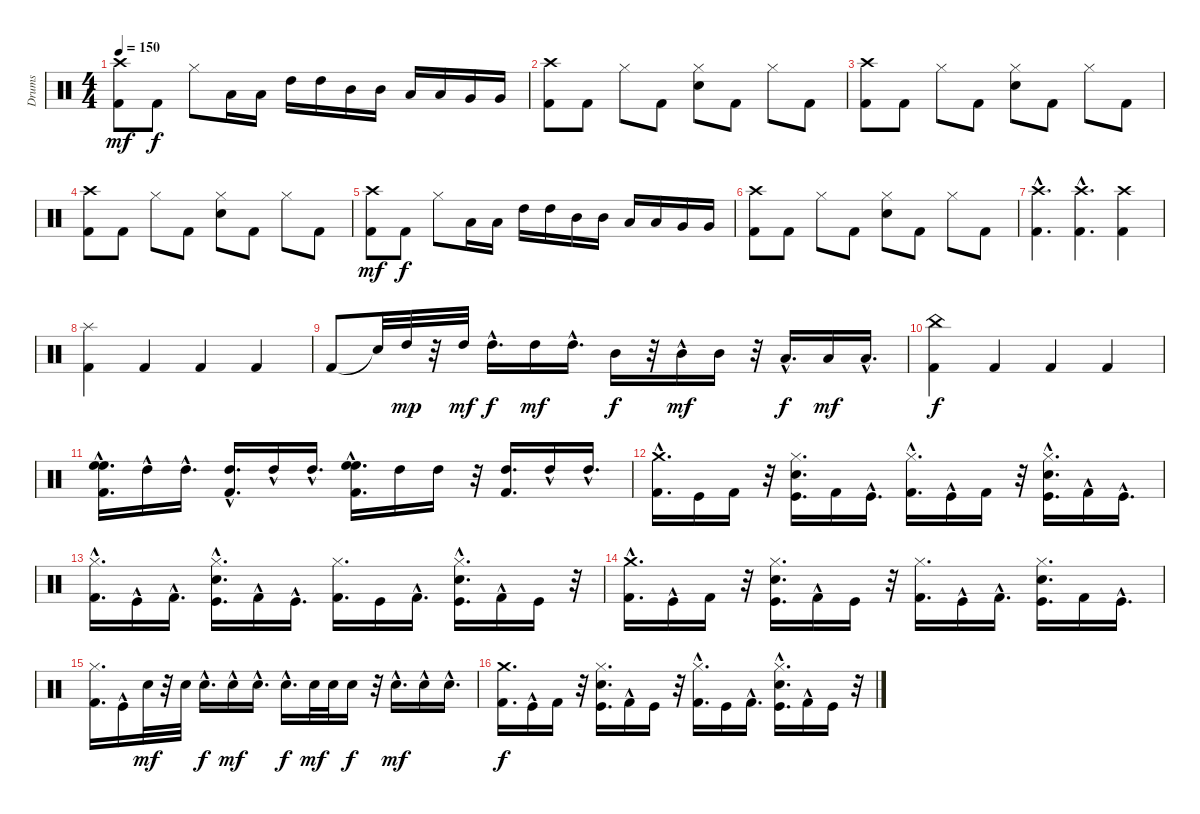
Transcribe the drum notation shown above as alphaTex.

\track ("Drums" "Drums") {instrument percussion}
\staff {score}
\articulation defaults
\ts (4 4)
\tempo 150
\clef neutral
\ks c
("Kick (hit) 2" "Crash high (hit)").8{dy mf} "Kick (hit) 2".8{dy f} "Hi-Hat (closed)".8 "Low Tom (hit)".16 "Low Tom (hit)".16 "High Tom (hit)".16 "High Tom (hit)".16 "Mid Tom (hit)".16 "Mid Tom (hit)".16 "Low Tom (hit)".16 "Low Tom (hit)".16 "Very Low Tom (hit)".16 "Very Low Tom (hit)".16 |
("Kick (hit) 2" "Crash high (hit)").8 "Kick (hit) 2".8 "Hi-Hat (closed)".8 "Kick (hit) 2".8 ("Snare (hit) 2" "Hi-Hat (closed)").8 "Kick (hit) 2".8 "Hi-Hat (closed)".8 "Kick (hit) 2".8 |
("Kick (hit) 2" "Crash high (hit)").8 "Kick (hit) 2".8 "Hi-Hat (closed)".8 "Kick (hit) 2".8 ("Snare (hit) 2" "Hi-Hat (closed)").8 "Kick (hit) 2".8 "Hi-Hat (closed)".8 "Kick (hit) 2".8 |
("Crash high (hit)" "Kick (hit) 2").8 "Kick (hit) 2".8 "Hi-Hat (closed)".8 "Kick (hit) 2".8 ("Hi-Hat (closed)" "Snare (hit) 2").8 "Kick (hit) 2".8 "Hi-Hat (closed)".8 "Kick (hit) 2".8 |
("Kick (hit) 2" "Crash high (hit)").8{dy mf} "Kick (hit) 2".8{dy f} "Hi-Hat (closed)".8 "Low Tom (hit)".16 "Low Tom (hit)".16 "High Tom (hit)".16 "High Tom (hit)".16 "Mid Tom (hit)".16 "Mid Tom (hit)".16 "Low Tom (hit)".16 "Low Tom (hit)".16 "Very Low Tom (hit)".16 "Very Low Tom (hit)".16 |
("Kick (hit) 2" "Crash high (hit)").8 "Kick (hit) 2".8 "Hi-Hat (closed)".8 "Kick (hit) 2".8 ("Snare (hit) 2" "Hi-Hat (closed)").8 "Kick (hit) 2".8 "Hi-Hat (closed)".8 "Kick (hit) 2".8 |
("Crash high (hit)"{hac} "Kick (hit) 2"{hac}).4{d} ("Crash high (hit)"{hac} "Kick (hit) 2"{hac}).4{d} ("Kick (hit) 2" "Crash high (hit)").4 |
("Splash (hit)" "Kick (hit) 2").4 "Kick (hit) 2".4 "Kick (hit) 2".4 "Kick (hit) 2".4 |
"Kick (hit) 2".8 "Snare (hit)"{t}.32 "High Tom (hit)".32{dy mp} r.32 "High Tom (hit)".32{dy mf} "High Tom (hit)"{hac}.16{d dy f} "High Tom (hit)".16{dy mf} "High Tom (hit)"{hac}.16{d} "Mid Tom (hit)".16{dy f} r.32 "Mid Tom (hit)"{hac}.16{dy mf} "Mid Tom (hit)".16 r.32 "Low Tom (hit)"{hac}.16{d dy f} "Low Tom (hit)".16{dy mf} "Low Tom (hit)"{hac}.16{d} |
("Kick (hit) 2" "China (hit)").4{dy f} "Kick (hit) 2".4 "Kick (hit) 2".4 "Kick (hit) 2".4 |
("High Floor Tom (hit)"{hac} "Kick (hit) 2" "High Floor Tom (hit)").16{d} "High Tom (hit)"{hac}.16 "High Tom (hit)"{hac}.16{d} ("High Tom (hit)"{hac} "Kick (hit) 2").16{d} "High Tom (hit)"{hac}.16 "High Tom (hit)"{hac}.16{d} ("High Floor Tom (hit)"{hac} "Kick (hit) 2" "High Floor Tom (hit)").16{d} "High Tom (hit)".16 "High Tom (hit)".16 r.32 ("Kick (hit) 2" "High Tom (hit)").16{d} "High Tom (hit)"{hac}.16 "High Tom (hit)"{hac}.16{d} |
("Kick (hit) 2"{hac} "Crash medium (hit)").16{d} "Kick (hit)".16 "Kick (hit) 2".16 r.32 ("Hi-Hat (closed)" "Kick (hit)" "Snare (hit) 2").16{d} "Kick (hit) 2".16 "Kick (hit)"{hac}.16{d} ("Hi-Hat (closed)" "Kick (hit) 2"{hac}).16{d} "Kick (hit)"{hac}.16 "Kick (hit) 2".16 r.32 ("Hi-Hat (closed)" "Kick (hit)"{hac} "Snare (hit) 2").16{d} "Kick (hit) 2"{hac}.16 "Kick (hit)"{hac}.16{d} |
("Kick (hit) 2"{hac} "Hi-Hat (closed)").16{d} "Kick (hit)"{hac}.16 "Kick (hit) 2"{hac}.16{d} ("Hi-Hat (closed)" "Kick (hit)"{hac} "Snare (hit) 2").16{d} "Kick (hit) 2"{hac}.16 "Kick (hit)"{hac}.16{d} ("Hi-Hat (closed)" "Kick (hit) 2").16{d} "Kick (hit)".16 "Kick (hit) 2"{hac}.16{d} ("Hi-Hat (closed)" "Kick (hit)"{hac} "Snare (hit) 2").16{d} "Kick (hit) 2"{hac}.16 "Kick (hit)".16 r.32 |
("Kick (hit) 2"{hac} "Crash medium (hit)").16{d} "Kick (hit)"{hac}.16 "Kick (hit) 2".16 r.32 ("Hi-Hat (closed)" "Snare (hit) 2" "Kick (hit)").16{d} "Kick (hit) 2"{hac}.16 "Kick (hit)".16 r.32 ("Hi-Hat (closed)" "Kick (hit) 2").16{d} "Kick (hit)"{hac}.16 "Kick (hit) 2"{hac}.16{d} ("Snare (hit) 2" "Hi-Hat (closed)" "Kick (hit)").16{d} "Kick (hit) 2".16 "Kick (hit)"{hac}.16{d} |
("Hi-Hat (closed)" "Kick (hit) 2").16{d} "Kick (hit)"{hac}.16 "Snare (hit) 2".32{dy mf} r.32 "Snare (hit) 2".32 "Snare (hit) 2"{hac}.16{d dy f} "Snare (hit) 2"{hac}.16{dy mf} "Snare (hit) 2"{hac}.16{d} "Snare (hit) 2"{hac}.16{d dy f} "Snare (hit) 2".32{dy mf} "Snare (hit) 2".32 "Snare (hit) 2".16{dy f} r.32 "Snare (hit) 2"{hac}.16{d dy mf} "Snare (hit) 2"{hac}.16 "Snare (hit) 2"{hac}.16{d} |
("Crash medium (hit)" "Kick (hit) 2").16{d dy f} "Kick (hit)"{hac}.16 "Kick (hit) 2".16 r.32 ("Hi-Hat (closed)" "Snare (hit) 2" "Kick (hit)").16{d} "Kick (hit) 2"{hac}.16 "Kick (hit)".16 r.32 ("Kick (hit) 2"{hac} "Hi-Hat (closed)").16{d} "Kick (hit)".16 "Kick (hit) 2"{hac}.16{d} ("Kick (hit)"{hac} "Hi-Hat (closed)" "Snare (hit) 2").16{d} "Kick (hit) 2"{hac}.16 "Kick (hit)".16 r.32
